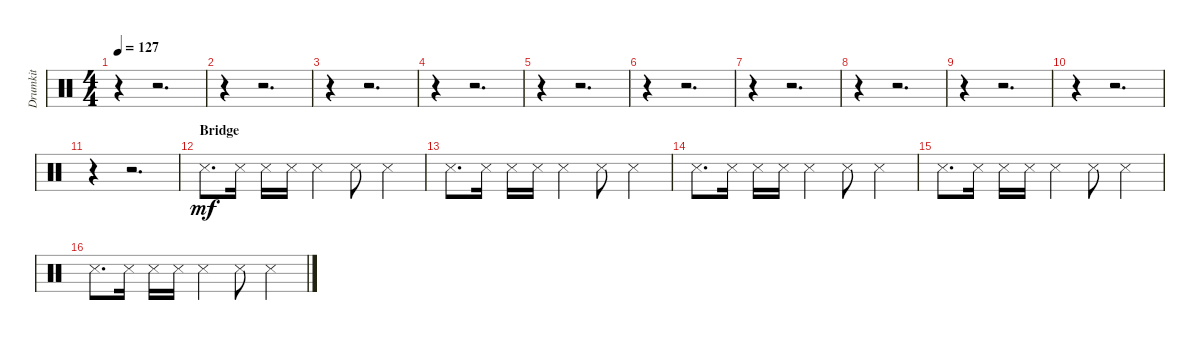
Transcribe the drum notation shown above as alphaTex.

\track ("Drumkit" "Drumkit") {instrument percussion}
\staff {score}
\articulation defaults
\ts (4 4)
\tempo 127
\clef neutral
\ks c
r.4{dy mf} r.2{d} |
r.4 r.2{d} |
r.4 r.2{d} |
r.4 r.2{d} |
r.4 r.2{d} |
r.4 r.2{d} |
r.4 r.2{d} |
r.4 r.2{d} |
r.4 r.2{d} |
r.4 r.2{d} |
r.4 r.2{d} |
\section ("" "Bridge")
"Snare (side stick) 3".8{d} "Snare (side stick) 3".16 "Snare (side stick) 3".16 "Snare (side stick) 3".16 "Snare (side stick) 3".4 "Snare (side stick) 3".8 "Snare (side stick) 3".4 |
"Snare (side stick) 3".8{d} "Snare (side stick) 3".16 "Snare (side stick) 3".16 "Snare (side stick) 3".16 "Snare (side stick) 3".4 "Snare (side stick) 3".8 "Snare (side stick) 3".4 |
"Snare (side stick) 3".8{d} "Snare (side stick) 3".16 "Snare (side stick) 3".16 "Snare (side stick) 3".16 "Snare (side stick) 3".4 "Snare (side stick) 3".8 "Snare (side stick) 3".4 |
"Snare (side stick) 3".8{d} "Snare (side stick) 3".16 "Snare (side stick) 3".16 "Snare (side stick) 3".16 "Snare (side stick) 3".4 "Snare (side stick) 3".8 "Snare (side stick) 3".4 |
"Snare (side stick) 3".8{d} "Snare (side stick) 3".16 "Snare (side stick) 3".16 "Snare (side stick) 3".16 "Snare (side stick) 3".4 "Snare (side stick) 3".8 "Snare (side stick) 3".4
